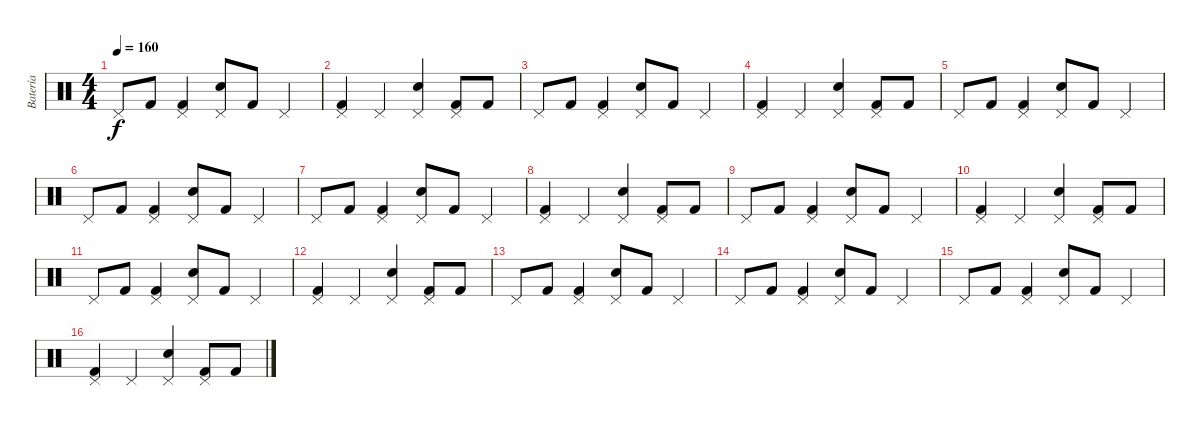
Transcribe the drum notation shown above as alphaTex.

\track ("Batería" "Batería") {instrument percussion}
\staff {score}
\articulation defaults
\ts (4 4)
\tempo 160
\clef neutral
\ks c "Pedal Hi-Hat (hit)".8{dy f} "Kick (hit) 2".8
("Kick (hit) 2" "Pedal Hi-Hat (hit)").4 ("Electric Snare (hit)" "Pedal Hi-Hat (hit)").8 "Kick (hit) 2".8 "Pedal Hi-Hat (hit)".4 |
("Kick (hit) 2" "Pedal Hi-Hat (hit)").4 "Pedal Hi-Hat (hit)".4 ("Electric Snare (hit)" "Pedal Hi-Hat (hit)").4 ("Kick (hit) 2" "Pedal Hi-Hat (hit)").8 "Kick (hit) 2".8 |
"Pedal Hi-Hat (hit)".8 "Kick (hit) 2".8 ("Kick (hit) 2" "Pedal Hi-Hat (hit)").4 ("Electric Snare (hit)" "Pedal Hi-Hat (hit)").8 "Kick (hit) 2".8 "Pedal Hi-Hat (hit)".4 |
("Kick (hit) 2" "Pedal Hi-Hat (hit)").4 "Pedal Hi-Hat (hit)".4 ("Electric Snare (hit)" "Pedal Hi-Hat (hit)").4 ("Kick (hit) 2" "Pedal Hi-Hat (hit)").8 "Kick (hit) 2".8 |
"Pedal Hi-Hat (hit)".8 "Kick (hit) 2".8 ("Kick (hit) 2" "Pedal Hi-Hat (hit)").4 ("Electric Snare (hit)" "Pedal Hi-Hat (hit)").8 "Kick (hit) 2".8 "Pedal Hi-Hat (hit)".4 |
"Pedal Hi-Hat (hit)".8 "Kick (hit) 2".8 ("Kick (hit) 2" "Pedal Hi-Hat (hit)").4 ("Electric Snare (hit)" "Pedal Hi-Hat (hit)").8 "Kick (hit) 2".8 "Pedal Hi-Hat (hit)".4 |
"Pedal Hi-Hat (hit)".8 "Kick (hit) 2".8 ("Kick (hit) 2" "Pedal Hi-Hat (hit)").4 ("Electric Snare (hit)" "Pedal Hi-Hat (hit)").8 "Kick (hit) 2".8 "Pedal Hi-Hat (hit)".4 |
("Kick (hit) 2" "Pedal Hi-Hat (hit)").4 "Pedal Hi-Hat (hit)".4 ("Electric Snare (hit)" "Pedal Hi-Hat (hit)").4 ("Kick (hit) 2" "Pedal Hi-Hat (hit)").8 "Kick (hit) 2".8 |
"Pedal Hi-Hat (hit)".8 "Kick (hit) 2".8 ("Kick (hit) 2" "Pedal Hi-Hat (hit)").4 ("Electric Snare (hit)" "Pedal Hi-Hat (hit)").8 "Kick (hit) 2".8 "Pedal Hi-Hat (hit)".4 |
("Kick (hit) 2" "Pedal Hi-Hat (hit)").4 "Pedal Hi-Hat (hit)".4 ("Electric Snare (hit)" "Pedal Hi-Hat (hit)").4 ("Kick (hit) 2" "Pedal Hi-Hat (hit)").8 "Kick (hit) 2".8 |
"Pedal Hi-Hat (hit)".8 "Kick (hit) 2".8 ("Kick (hit) 2" "Pedal Hi-Hat (hit)").4 ("Electric Snare (hit)" "Pedal Hi-Hat (hit)").8 "Kick (hit) 2".8 "Pedal Hi-Hat (hit)".4 |
("Kick (hit) 2" "Pedal Hi-Hat (hit)").4 "Pedal Hi-Hat (hit)".4 ("Electric Snare (hit)" "Pedal Hi-Hat (hit)").4 ("Kick (hit) 2" "Pedal Hi-Hat (hit)").8 "Kick (hit) 2".8 |
"Pedal Hi-Hat (hit)".8 "Kick (hit) 2".8 ("Kick (hit) 2" "Pedal Hi-Hat (hit)").4 ("Electric Snare (hit)" "Pedal Hi-Hat (hit)").8 "Kick (hit) 2".8 "Pedal Hi-Hat (hit)".4 |
"Pedal Hi-Hat (hit)".8 "Kick (hit) 2".8 ("Kick (hit) 2" "Pedal Hi-Hat (hit)").4 ("Electric Snare (hit)" "Pedal Hi-Hat (hit)").8 "Kick (hit) 2".8 "Pedal Hi-Hat (hit)".4 |
"Pedal Hi-Hat (hit)".8 "Kick (hit) 2".8 ("Kick (hit) 2" "Pedal Hi-Hat (hit)").4 ("Electric Snare (hit)" "Pedal Hi-Hat (hit)").8 "Kick (hit) 2".8 "Pedal Hi-Hat (hit)".4 |
("Kick (hit) 2" "Pedal Hi-Hat (hit)").4 "Pedal Hi-Hat (hit)".4 ("Electric Snare (hit)" "Pedal Hi-Hat (hit)").4 ("Kick (hit) 2" "Pedal Hi-Hat (hit)").8 "Kick (hit) 2".8
